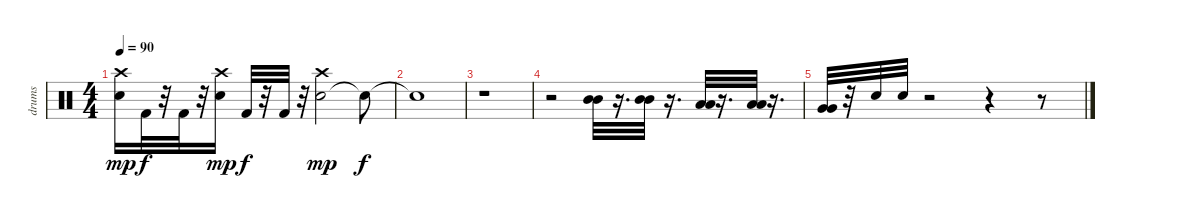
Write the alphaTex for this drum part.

\track ("drums" "drums") {instrument percussion}
\staff {score}
\articulation defaults
\ts (4 4)
\tempo 90
\clef neutral
\ks c
("Snare (hit) 2" "Crash high (hit)").16{dy mp} "Kick (hit) 2".32{dy f} r.32 "Kick (hit) 2".32 r.32 ("Snare (hit) 2" "Crash high (hit)").16{dy mp} "Kick (hit) 2".32{dy f} r.32 "Kick (hit) 2".32 r.32 ("Snare (hit) 2" "Crash high (hit)").2{dy mp} "Snare (hit)"{t}.8{dy f} |
"Snare (hit)"{t}.1 |
r.1 |
r.2 ("Mid Tom (hit)" "Mid Tom (hit)").32 r.16{d} ("Mid Tom (hit)" "Mid Tom (hit)").32 r.16{d} ("Low Tom (hit)" "Low Tom (hit)").32 r.16{d} ("Low Tom (hit)" "Low Tom (hit)").32 r.16{d} |
("Very Low Tom (hit)" "Very Low Tom (hit)").32 r.32 "Snare (hit) 2".32 "Snare (hit) 2".32 r.2 r.4 r.8
